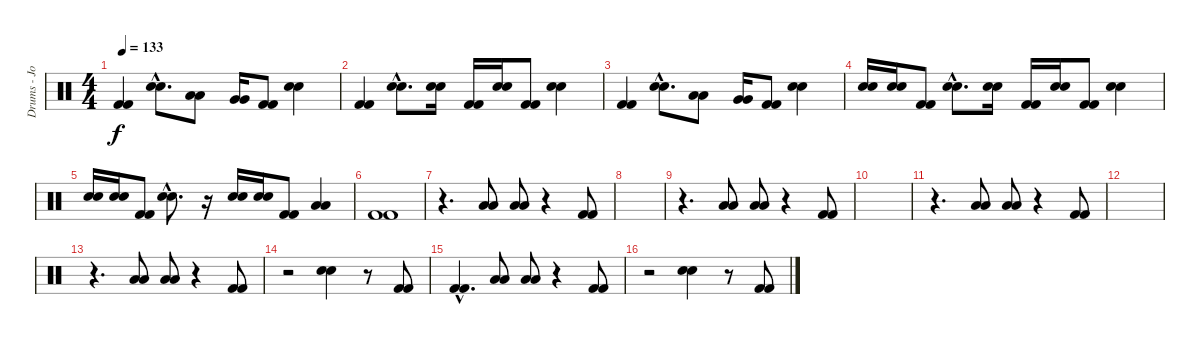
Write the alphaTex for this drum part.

\track ("Drums - Joe Daniels" "Drums - Jo") {instrument percussion}
\staff {score}
\articulation defaults
\ts (4 4)
\tempo 133
\clef neutral
\ks c
("Kick (hit) 2" "Kick (hit) 2").4{dy f} ("Snare (hit) 2"{hac} "Snare (hit) 2"{hac}).8{d} ("Low Tom (hit)" "Low Tom (hit)").8 ("Very Low Tom (hit)" "Very Low Tom (hit)").16 ("Kick (hit) 2" "Kick (hit) 2").8 ("Snare (hit) 2" "Snare (hit) 2").4 |
("Kick (hit) 2" "Kick (hit) 2").4 ("Snare (hit) 2"{hac} "Snare (hit) 2"{hac}).8{d} ("Snare (hit) 2" "Snare (hit) 2").16 ("Kick (hit) 2" "Kick (hit) 2").16 ("Snare (hit) 2" "Snare (hit) 2").16 ("Kick (hit) 2" "Kick (hit) 2").8 ("Snare (hit) 2" "Snare (hit) 2").4 |
("Kick (hit) 2" "Kick (hit) 2").4 ("Snare (hit) 2"{hac} "Snare (hit) 2"{hac}).8{d} ("Low Tom (hit)" "Low Tom (hit)").8 ("Very Low Tom (hit)" "Very Low Tom (hit)").16 ("Kick (hit) 2" "Kick (hit) 2").8 ("Snare (hit) 2" "Snare (hit) 2").4 |
("Snare (hit) 2" "Snare (hit) 2").16 ("Snare (hit) 2" "Snare (hit) 2").16 ("Kick (hit) 2" "Kick (hit) 2").8 ("Snare (hit) 2"{hac} "Snare (hit) 2"{hac}).8{d} ("Snare (hit) 2" "Snare (hit) 2").16 ("Kick (hit) 2" "Kick (hit) 2").16 ("Snare (hit) 2" "Snare (hit) 2").16 ("Kick (hit) 2" "Kick (hit) 2").8 ("Snare (hit) 2" "Snare (hit) 2").4 |
("Snare (hit) 2" "Snare (hit) 2").16 ("Snare (hit) 2" "Snare (hit) 2").16 ("Kick (hit) 2" "Kick (hit) 2").8 ("Snare (hit) 2"{hac} "Snare (hit) 2"{hac}).8{d} r.16 ("Snare (hit) 2" "Snare (hit) 2").16 ("Snare (hit) 2" "Snare (hit) 2").16 ("Kick (hit) 2" "Kick (hit) 2").8 ("Low Tom (hit)" "Low Tom (hit)").4 |
("Kick (hit) 2" "Kick (hit) 2").1 |
r.4{d} ("Low Floor Tom (hit)" "Low Floor Tom (hit)").8 ("Low Floor Tom (hit)" "Low Floor Tom (hit)").8 r.4 ("Kick (hit) 2" "Kick (hit) 2").8 |
|
r.4{d} ("Low Floor Tom (hit)" "Low Floor Tom (hit)").8 ("Low Floor Tom (hit)" "Low Floor Tom (hit)").8 r.4 ("Kick (hit) 2" "Kick (hit) 2").8 |
|
r.4{d} ("Low Floor Tom (hit)" "Low Floor Tom (hit)").8 ("Low Floor Tom (hit)" "Low Floor Tom (hit)").8 r.4 ("Kick (hit) 2" "Kick (hit) 2").8 |
|
r.4{d} ("Low Floor Tom (hit)" "Low Floor Tom (hit)").8 ("Low Floor Tom (hit)" "Low Floor Tom (hit)").8 r.4 ("Kick (hit) 2" "Kick (hit) 2").8 |
r.2 ("Snare (hit) 2" "Snare (hit) 2").4 r.8 ("Kick (hit) 2" "Kick (hit) 2").8 |
("Kick (hit) 2"{hac} "Kick (hit) 2"{hac}).4{d} ("Low Floor Tom (hit)" "Low Floor Tom (hit)").8 ("Low Floor Tom (hit)" "Low Floor Tom (hit)").8 r.4 ("Kick (hit) 2" "Kick (hit) 2").8 |
r.2 ("Snare (hit) 2" "Snare (hit) 2").4 r.8 ("Kick (hit) 2" "Kick (hit) 2").8
